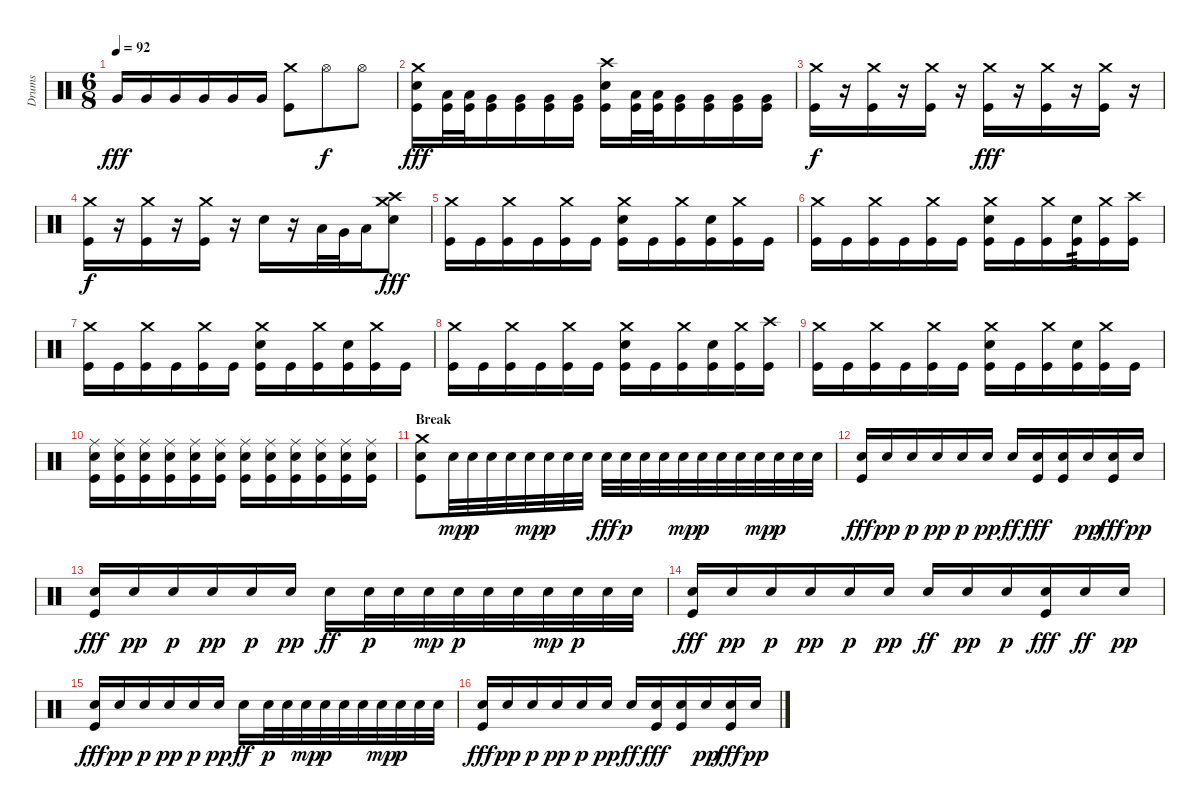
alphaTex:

\track ("Drums" "Drums") {instrument percussion}
\staff {score}
\articulation defaults
\ts (6 8)
\tempo 92
\clef neutral
\ks c "Very Low Tom (hit)".16{dy fff} "Very Low Tom (hit)".16 "Very Low Tom (hit)".16 "Very Low Tom (hit)".16 "Very Low Tom (hit)".16 "Very Low Tom (hit)".16
("Crash medium (hit)" "Kick (hit)").8 "Hi-Hat (open)".8{dy f} "Hi-Hat (open)".8 |
("Crash medium (hit)" "Snare (hit) 2" "Kick (hit)").16{dy fff} ("Low Tom (hit)" "Kick (hit)").32 ("Low Tom (hit)" "Kick (hit)").32 ("Very Low Tom (hit)" "Kick (hit)").16 ("Very Low Tom (hit)" "Kick (hit)").16 ("Very Low Tom (hit)" "Kick (hit)").16 ("Very Low Tom (hit)" "Kick (hit)").16 ("Crash high (hit)" "Snare (hit) 2" "Kick (hit)").16 ("Low Tom (hit)" "Kick (hit)").32 ("Low Tom (hit)" "Kick (hit)").32 ("Very Low Tom (hit)" "Kick (hit)").16 ("Very Low Tom (hit)" "Kick (hit)").16 ("Very Low Tom (hit)" "Kick (hit)").16 ("Very Low Tom (hit)" "Kick (hit)").16 |
("Crash medium (hit)" "Kick (hit)").16{dy f} r.16 ("Crash medium (hit)" "Kick (hit)").16 r.16 ("Crash medium (hit)" "Kick (hit)").16 r.16 ("Crash medium (hit)" "Kick (hit)").16{dy fff} r.16 ("Crash medium (hit)" "Kick (hit)").16 r.16 ("Crash medium (hit)" "Kick (hit)").16 r.16 |
("Crash medium (hit)" "Kick (hit)").16{dy f} r.16 ("Crash medium (hit)" "Kick (hit)").16 r.16 ("Crash medium (hit)" "Kick (hit)").16 r.16 "Snare (hit) 2".16 r.16 "Low Tom (hit)".32 "Very Low Tom (hit)".32 "Low Floor Tom (hit)".16 ("Crash medium (hit)" "Crash high (hit)" "Snare (hit) 2").8{dy fff} |
("Crash medium (hit)" "Kick (hit)").16 "Kick (hit)".16 ("Crash medium (hit)" "Kick (hit)").16 "Kick (hit)".16 ("Crash medium (hit)" "Kick (hit)").16 "Kick (hit)".16 ("Crash medium (hit)" "Snare (hit) 2" "Kick (hit)").16 "Kick (hit)".16 ("Crash medium (hit)" "Kick (hit)").16 ("Snare (hit) 2" "Kick (hit)").16 ("Crash medium (hit)" "Kick (hit)").16 "Kick (hit)".16 |
("Crash medium (hit)" "Kick (hit)").16 "Kick (hit)".16 ("Crash medium (hit)" "Kick (hit)").16 "Kick (hit)".16 ("Crash medium (hit)" "Kick (hit)").16 "Kick (hit)".16 ("Crash medium (hit)" "Snare (hit) 2" "Kick (hit)").16 "Kick (hit)".16 ("Crash medium (hit)" "Kick (hit)").16 ("Snare (hit) 2" "Kick (hit)").16{tp 3} ("Crash medium (hit)" "Kick (hit)").16 ("Crash high (hit)" "Kick (hit)").16 |
("Crash medium (hit)" "Kick (hit)").16 "Kick (hit)".16 ("Crash medium (hit)" "Kick (hit)").16 "Kick (hit)".16 ("Crash medium (hit)" "Kick (hit)").16 "Kick (hit)".16 ("Crash medium (hit)" "Snare (hit) 2" "Kick (hit)").16 "Kick (hit)".16 ("Crash medium (hit)" "Kick (hit)").16 ("Snare (hit) 2" "Kick (hit)").16 ("Crash medium (hit)" "Kick (hit)").16 "Kick (hit)".16 |
("Crash medium (hit)" "Kick (hit)").16 "Kick (hit)".16 ("Crash medium (hit)" "Kick (hit)").16 "Kick (hit)".16 ("Crash medium (hit)" "Kick (hit)").16 "Kick (hit)".16 ("Crash medium (hit)" "Snare (hit) 2" "Kick (hit)").16 "Kick (hit)".16 ("Crash medium (hit)" "Kick (hit)").16 ("Snare (hit) 2" "Kick (hit)").16 ("Crash medium (hit)" "Kick (hit)").16 ("Crash high (hit)" "Kick (hit)").16 |
("Crash medium (hit)" "Kick (hit)").16 "Kick (hit)".16 ("Crash medium (hit)" "Kick (hit)").16 "Kick (hit)".16 ("Crash medium (hit)" "Kick (hit)").16 "Kick (hit)".16 ("Crash medium (hit)" "Snare (hit) 2" "Kick (hit)").16 "Kick (hit)".16 ("Crash medium (hit)" "Kick (hit)").16 ("Snare (hit) 2" "Kick (hit)").16 ("Crash medium (hit)" "Kick (hit)").16 "Kick (hit)".16 |
("Ride (middle)" "Snare (hit) 2" "Kick (hit)").16 ("Ride (middle)" "Snare (hit) 2" "Kick (hit)").16 ("Ride (middle)" "Snare (hit) 2" "Kick (hit)").16 ("Ride (middle)" "Snare (hit) 2" "Kick (hit)").16 ("Ride (middle)" "Snare (hit) 2" "Kick (hit)").16 ("Ride (middle)" "Snare (hit) 2" "Kick (hit)").16 ("Ride (middle)" "Snare (hit) 2" "Kick (hit)").16 ("Ride (middle)" "Snare (hit) 2" "Kick (hit)").16 ("Ride (middle)" "Snare (hit) 2" "Kick (hit)").16 ("Ride (middle)" "Snare (hit) 2" "Kick (hit)").16 ("Ride (middle)" "Snare (hit) 2" "Kick (hit)").16 ("Ride (middle)" "Snare (hit) 2" "Kick (hit)").16 |
\section ("" "Break")
("Crash medium (hit)" "Snare (hit) 2" "Kick (hit)").8 "Snare (hit) 2".32{dy mp} "Snare (hit) 2".32{dy p} "Snare (hit) 2".32 "Snare (hit) 2".32 "Snare (hit) 2".32{dy mp} "Snare (hit) 2".32{dy p} "Snare (hit) 2".32 "Snare (hit) 2".32 "Snare (hit) 2".32{dy fff} "Snare (hit) 2".32{dy p} "Snare (hit) 2".32 "Snare (hit) 2".32 "Snare (hit) 2".32{dy mp} "Snare (hit) 2".32{dy p} "Snare (hit) 2".32 "Snare (hit) 2".32 "Snare (hit) 2".32{dy mp} "Snare (hit) 2".32{dy p} "Snare (hit) 2".32 "Snare (hit) 2".32 |
("Snare (hit) 2" "Kick (hit)").16{dy fff} "Snare (hit) 2".16{dy pp} "Snare (hit) 2".16{dy p} "Snare (hit) 2".16{dy pp} "Snare (hit) 2".16{dy p} "Snare (hit) 2".16{dy pp} "Snare (hit) 2".16{dy ff} ("Snare (hit) 2" "Kick (hit)").16{dy fff} ("Snare (hit) 2" "Kick (hit)").16 "Snare (hit) 2".16{dy pp} ("Snare (hit) 2" "Kick (hit)").16{dy fff} "Snare (hit) 2".16{dy pp} |
("Snare (hit) 2" "Kick (hit)").16{dy fff} "Snare (hit) 2".16{dy pp} "Snare (hit) 2".16{dy p} "Snare (hit) 2".16{dy pp} "Snare (hit) 2".16{dy p} "Snare (hit) 2".16{dy pp} "Snare (hit) 2".16{dy ff} "Snare (hit) 2".32{dy p} "Snare (hit) 2".32 "Snare (hit) 2".32{dy mp} "Snare (hit) 2".32{dy p} "Snare (hit) 2".32 "Snare (hit) 2".32 "Snare (hit) 2".32{dy mp} "Snare (hit) 2".32{dy p} "Snare (hit) 2".32 "Snare (hit) 2".32 |
("Snare (hit) 2" "Kick (hit)").16{dy fff} "Snare (hit) 2".16{dy pp} "Snare (hit) 2".16{dy p} "Snare (hit) 2".16{dy pp} "Snare (hit) 2".16{dy p} "Snare (hit) 2".16{dy pp} "Snare (hit) 2".16{dy ff} "Snare (hit) 2".16{dy pp} "Snare (hit) 2".16{dy p} ("Snare (hit) 2" "Kick (hit)").16{dy fff} "Snare (hit) 2".16{dy ff} "Snare (hit) 2".16{dy pp} |
("Snare (hit) 2" "Kick (hit)").16{dy fff} "Snare (hit) 2".16{dy pp} "Snare (hit) 2".16{dy p} "Snare (hit) 2".16{dy pp} "Snare (hit) 2".16{dy p} "Snare (hit) 2".16{dy pp} "Snare (hit) 2".16{dy ff} "Snare (hit) 2".32{dy p} "Snare (hit) 2".32 "Snare (hit) 2".32{dy mp} "Snare (hit) 2".32{dy p} "Snare (hit) 2".32 "Snare (hit) 2".32 "Snare (hit) 2".32{dy mp} "Snare (hit) 2".32{dy p} "Snare (hit) 2".32 "Snare (hit) 2".32 |
("Snare (hit) 2" "Kick (hit)").16{dy fff} "Snare (hit) 2".16{dy pp} "Snare (hit) 2".16{dy p} "Snare (hit) 2".16{dy pp} "Snare (hit) 2".16{dy p} "Snare (hit) 2".16{dy pp} "Snare (hit) 2".16{dy ff} ("Snare (hit) 2" "Kick (hit)").16{dy fff} ("Snare (hit) 2" "Kick (hit)").16 "Snare (hit) 2".16{dy pp} ("Snare (hit) 2" "Kick (hit)").16{dy fff} "Snare (hit) 2".16{dy pp}
